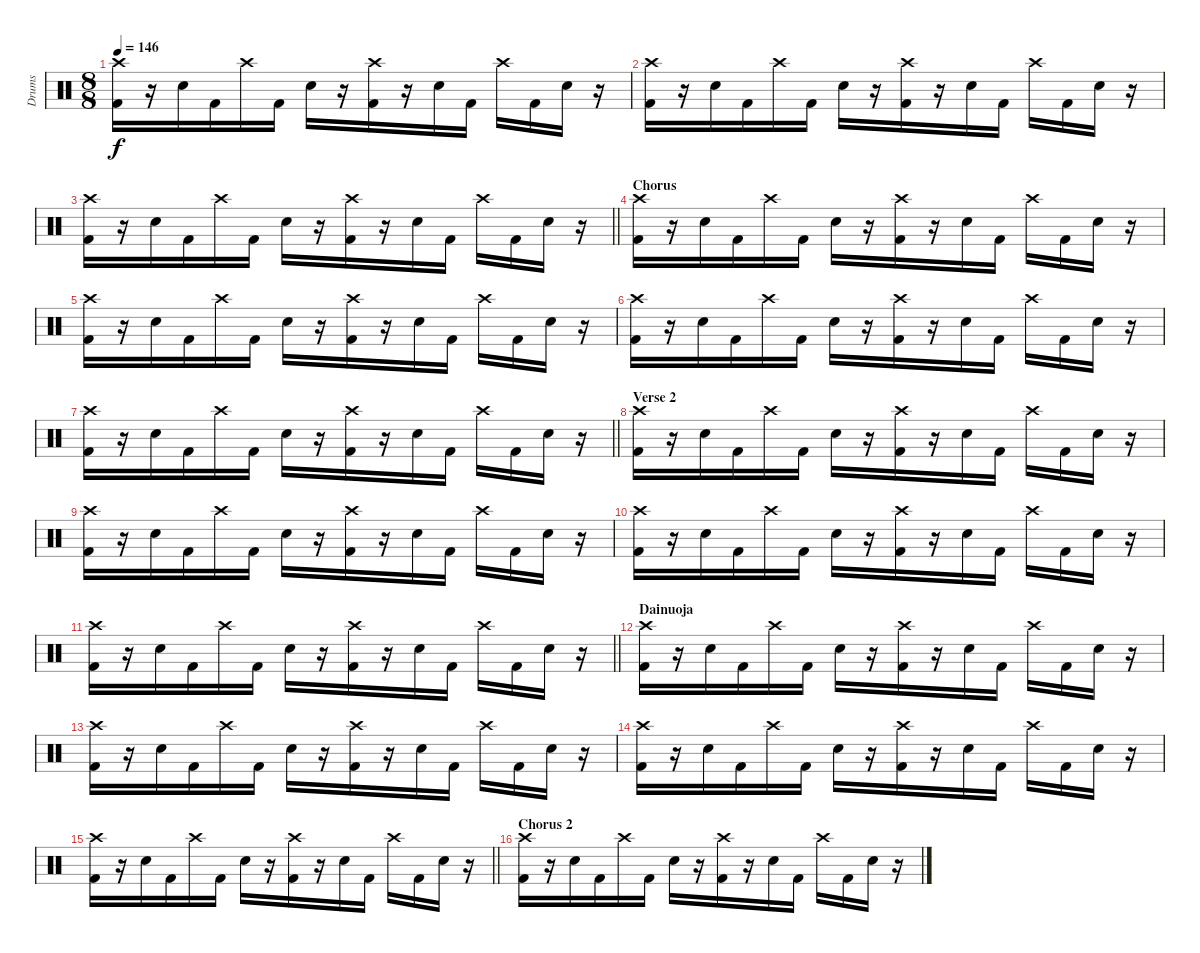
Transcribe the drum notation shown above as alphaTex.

\track ("Drums" "Drums") {instrument percussion}
\staff {score}
\articulation defaults
\ts (8 8)
\tempo 146
\clef neutral
\ks c
("Crash high (hit)" "Kick (hit) 2").16{dy f} r.16 "Snare (hit) 2".16 "Kick (hit) 2".16 "Crash high (hit)".16 "Kick (hit) 2".16 "Snare (hit) 2".16 r.16 ("Crash high (hit)" "Kick (hit) 2").16 r.16 "Snare (hit) 2".16 "Kick (hit) 2".16 "Crash high (hit)".16 "Kick (hit) 2".16 "Snare (hit) 2".16 r.16 |
("Crash high (hit)" "Kick (hit) 2").16 r.16 "Snare (hit) 2".16 "Kick (hit) 2".16 "Crash high (hit)".16 "Kick (hit) 2".16 "Snare (hit) 2".16 r.16 ("Crash high (hit)" "Kick (hit) 2").16 r.16 "Snare (hit) 2".16 "Kick (hit) 2".16 "Crash high (hit)".16 "Kick (hit) 2".16 "Snare (hit) 2".16 r.16 |
\barLineRight lightlight
("Crash high (hit)" "Kick (hit) 2").16 r.16 "Snare (hit) 2".16 "Kick (hit) 2".16 "Crash high (hit)".16 "Kick (hit) 2".16 "Snare (hit) 2".16 r.16 ("Crash high (hit)" "Kick (hit) 2").16 r.16 "Snare (hit) 2".16 "Kick (hit) 2".16 "Crash high (hit)".16 "Kick (hit) 2".16 "Snare (hit) 2".16 r.16 |
\section ("" "Chorus")
("Crash high (hit)" "Kick (hit) 2").16 r.16 "Snare (hit) 2".16 "Kick (hit) 2".16 "Crash high (hit)".16 "Kick (hit) 2".16 "Snare (hit) 2".16 r.16 ("Crash high (hit)" "Kick (hit) 2").16 r.16 "Snare (hit) 2".16 "Kick (hit) 2".16 "Crash high (hit)".16 "Kick (hit) 2".16 "Snare (hit) 2".16 r.16 |
("Crash high (hit)" "Kick (hit) 2").16 r.16 "Snare (hit) 2".16 "Kick (hit) 2".16 "Crash high (hit)".16 "Kick (hit) 2".16 "Snare (hit) 2".16 r.16 ("Crash high (hit)" "Kick (hit) 2").16 r.16 "Snare (hit) 2".16 "Kick (hit) 2".16 "Crash high (hit)".16 "Kick (hit) 2".16 "Snare (hit) 2".16 r.16 |
("Crash high (hit)" "Kick (hit) 2").16 r.16 "Snare (hit) 2".16 "Kick (hit) 2".16 "Crash high (hit)".16 "Kick (hit) 2".16 "Snare (hit) 2".16 r.16 ("Crash high (hit)" "Kick (hit) 2").16 r.16 "Snare (hit) 2".16 "Kick (hit) 2".16 "Crash high (hit)".16 "Kick (hit) 2".16 "Snare (hit) 2".16 r.16 |
\barLineRight lightlight
("Crash high (hit)" "Kick (hit) 2").16 r.16 "Snare (hit) 2".16 "Kick (hit) 2".16 "Crash high (hit)".16 "Kick (hit) 2".16 "Snare (hit) 2".16 r.16 ("Crash high (hit)" "Kick (hit) 2").16 r.16 "Snare (hit) 2".16 "Kick (hit) 2".16 "Crash high (hit)".16 "Kick (hit) 2".16 "Snare (hit) 2".16 r.16 |
\section ("" "Verse 2")
("Crash high (hit)" "Kick (hit) 2").16 r.16 "Snare (hit) 2".16 "Kick (hit) 2".16 "Crash high (hit)".16 "Kick (hit) 2".16 "Snare (hit) 2".16 r.16 ("Crash high (hit)" "Kick (hit) 2").16 r.16 "Snare (hit) 2".16 "Kick (hit) 2".16 "Crash high (hit)".16 "Kick (hit) 2".16 "Snare (hit) 2".16 r.16 |
("Crash high (hit)" "Kick (hit) 2").16 r.16 "Snare (hit) 2".16 "Kick (hit) 2".16 "Crash high (hit)".16 "Kick (hit) 2".16 "Snare (hit) 2".16 r.16 ("Crash high (hit)" "Kick (hit) 2").16 r.16 "Snare (hit) 2".16 "Kick (hit) 2".16 "Crash high (hit)".16 "Kick (hit) 2".16 "Snare (hit) 2".16 r.16 |
("Crash high (hit)" "Kick (hit) 2").16 r.16 "Snare (hit) 2".16 "Kick (hit) 2".16 "Crash high (hit)".16 "Kick (hit) 2".16 "Snare (hit) 2".16 r.16 ("Crash high (hit)" "Kick (hit) 2").16 r.16 "Snare (hit) 2".16 "Kick (hit) 2".16 "Crash high (hit)".16 "Kick (hit) 2".16 "Snare (hit) 2".16 r.16 |
\barLineRight lightlight
("Crash high (hit)" "Kick (hit) 2").16 r.16 "Snare (hit) 2".16 "Kick (hit) 2".16 "Crash high (hit)".16 "Kick (hit) 2".16 "Snare (hit) 2".16 r.16 ("Crash high (hit)" "Kick (hit) 2").16 r.16 "Snare (hit) 2".16 "Kick (hit) 2".16 "Crash high (hit)".16 "Kick (hit) 2".16 "Snare (hit) 2".16 r.16 |
\section ("" "Dainuoja")
("Crash high (hit)" "Kick (hit) 2").16 r.16 "Snare (hit) 2".16 "Kick (hit) 2".16 "Crash high (hit)".16 "Kick (hit) 2".16 "Snare (hit) 2".16 r.16 ("Crash high (hit)" "Kick (hit) 2").16 r.16 "Snare (hit) 2".16 "Kick (hit) 2".16 "Crash high (hit)".16 "Kick (hit) 2".16 "Snare (hit) 2".16 r.16 |
("Crash high (hit)" "Kick (hit) 2").16 r.16 "Snare (hit) 2".16 "Kick (hit) 2".16 "Crash high (hit)".16 "Kick (hit) 2".16 "Snare (hit) 2".16 r.16 ("Crash high (hit)" "Kick (hit) 2").16 r.16 "Snare (hit) 2".16 "Kick (hit) 2".16 "Crash high (hit)".16 "Kick (hit) 2".16 "Snare (hit) 2".16 r.16 |
("Crash high (hit)" "Kick (hit) 2").16 r.16 "Snare (hit) 2".16 "Kick (hit) 2".16 "Crash high (hit)".16 "Kick (hit) 2".16 "Snare (hit) 2".16 r.16 ("Crash high (hit)" "Kick (hit) 2").16 r.16 "Snare (hit) 2".16 "Kick (hit) 2".16 "Crash high (hit)".16 "Kick (hit) 2".16 "Snare (hit) 2".16 r.16 |
\barLineRight lightlight
("Crash high (hit)" "Kick (hit) 2").16 r.16 "Snare (hit) 2".16 "Kick (hit) 2".16 "Crash high (hit)".16 "Kick (hit) 2".16 "Snare (hit) 2".16 r.16 ("Crash high (hit)" "Kick (hit) 2").16 r.16 "Snare (hit) 2".16 "Kick (hit) 2".16 "Crash high (hit)".16 "Kick (hit) 2".16 "Snare (hit) 2".16 r.16 |
\section ("" "Chorus 2")
("Crash high (hit)" "Kick (hit) 2").16 r.16 "Snare (hit) 2".16 "Kick (hit) 2".16 "Crash high (hit)".16 "Kick (hit) 2".16 "Snare (hit) 2".16 r.16 ("Crash high (hit)" "Kick (hit) 2").16 r.16 "Snare (hit) 2".16 "Kick (hit) 2".16 "Crash high (hit)".16 "Kick (hit) 2".16 "Snare (hit) 2".16 r.16
